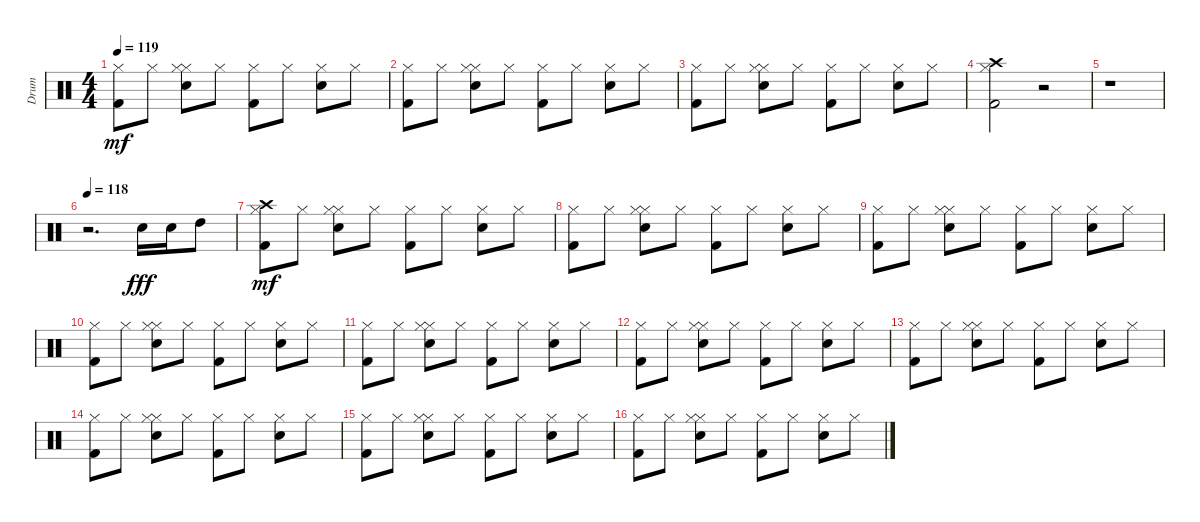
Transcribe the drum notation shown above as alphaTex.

\track ("Drum " "Drum ") {instrument percussion}
\staff {score}
\articulation defaults
\ts (4 4)
\tempo 119
\clef neutral
\ks c
("Hi-Hat (closed)" "Kick (hit) 2").8{dy mf} "Hi-Hat (closed)".8 ("Hi-Hat (closed)" "Hi-Hat (closed)" "Snare (hit) 2").8 "Hi-Hat (closed)".8 ("Hi-Hat (closed)" "Kick (hit) 2").8 "Hi-Hat (closed)".8 ("Hi-Hat (closed)" "Snare (hit) 2").8 "Hi-Hat (closed)".8 |
("Hi-Hat (closed)" "Kick (hit) 2").8 "Hi-Hat (closed)".8 ("Hi-Hat (closed)" "Hi-Hat (closed)" "Snare (hit) 2").8 "Hi-Hat (closed)".8 ("Hi-Hat (closed)" "Kick (hit) 2").8 "Hi-Hat (closed)".8 ("Hi-Hat (closed)" "Snare (hit) 2").8 "Hi-Hat (closed)".8 |
("Hi-Hat (closed)" "Kick (hit) 2").8 "Hi-Hat (closed)".8 ("Hi-Hat (closed)" "Hi-Hat (closed)" "Snare (hit) 2").8 "Hi-Hat (closed)".8 ("Hi-Hat (closed)" "Kick (hit) 2").8 "Hi-Hat (closed)".8 ("Hi-Hat (closed)" "Snare (hit) 2").8 "Hi-Hat (closed)".8 |
("Hi-Hat (closed)" "Kick (hit) 2" "Crash high (hit)").2 r.2 |
r.1 |
\tempo 118
r.2{d} "Snare (hit) 2".16{dy fff} "Snare (hit) 2".16 "High Tom (hit)".8 |
("Hi-Hat (closed)" "Kick (hit) 2" "Crash high (hit)").8{dy mf} "Hi-Hat (closed)".8 ("Hi-Hat (closed)" "Hi-Hat (closed)" "Snare (hit) 2").8 "Hi-Hat (closed)".8 ("Hi-Hat (closed)" "Kick (hit) 2").8 "Hi-Hat (closed)".8 ("Hi-Hat (closed)" "Snare (hit) 2").8 "Hi-Hat (closed)".8 |
("Hi-Hat (closed)" "Kick (hit) 2").8 "Hi-Hat (closed)".8 ("Hi-Hat (closed)" "Hi-Hat (closed)" "Snare (hit) 2").8 "Hi-Hat (closed)".8 ("Hi-Hat (closed)" "Kick (hit) 2").8 "Hi-Hat (closed)".8 ("Hi-Hat (closed)" "Snare (hit) 2").8 "Hi-Hat (closed)".8 |
("Hi-Hat (closed)" "Kick (hit) 2").8 "Hi-Hat (closed)".8 ("Hi-Hat (closed)" "Hi-Hat (closed)" "Snare (hit) 2").8 "Hi-Hat (closed)".8 ("Hi-Hat (closed)" "Kick (hit) 2").8 "Hi-Hat (closed)".8 ("Hi-Hat (closed)" "Snare (hit) 2").8 "Hi-Hat (closed)".8 |
("Hi-Hat (closed)" "Kick (hit) 2").8 "Hi-Hat (closed)".8 ("Hi-Hat (closed)" "Hi-Hat (closed)" "Snare (hit) 2").8 "Hi-Hat (closed)".8 ("Hi-Hat (closed)" "Kick (hit) 2").8 "Hi-Hat (closed)".8 ("Hi-Hat (closed)" "Snare (hit) 2").8 "Hi-Hat (closed)".8 |
("Hi-Hat (closed)" "Kick (hit) 2").8 "Hi-Hat (closed)".8 ("Hi-Hat (closed)" "Hi-Hat (closed)" "Snare (hit) 2").8 "Hi-Hat (closed)".8 ("Hi-Hat (closed)" "Kick (hit) 2").8 "Hi-Hat (closed)".8 ("Hi-Hat (closed)" "Snare (hit) 2").8 "Hi-Hat (closed)".8 |
("Hi-Hat (closed)" "Kick (hit) 2").8 "Hi-Hat (closed)".8 ("Hi-Hat (closed)" "Hi-Hat (closed)" "Snare (hit) 2").8 "Hi-Hat (closed)".8 ("Hi-Hat (closed)" "Kick (hit) 2").8 "Hi-Hat (closed)".8 ("Hi-Hat (closed)" "Snare (hit) 2").8 "Hi-Hat (closed)".8 |
("Hi-Hat (closed)" "Kick (hit) 2").8 "Hi-Hat (closed)".8 ("Hi-Hat (closed)" "Hi-Hat (closed)" "Snare (hit) 2").8 "Hi-Hat (closed)".8 ("Hi-Hat (closed)" "Kick (hit) 2").8 "Hi-Hat (closed)".8 ("Hi-Hat (closed)" "Snare (hit) 2").8 "Hi-Hat (closed)".8 |
("Hi-Hat (closed)" "Kick (hit) 2").8 "Hi-Hat (closed)".8 ("Hi-Hat (closed)" "Hi-Hat (closed)" "Snare (hit) 2").8 "Hi-Hat (closed)".8 ("Hi-Hat (closed)" "Kick (hit) 2").8 "Hi-Hat (closed)".8 ("Hi-Hat (closed)" "Snare (hit) 2").8 "Hi-Hat (closed)".8 |
("Hi-Hat (closed)" "Kick (hit) 2").8 "Hi-Hat (closed)".8 ("Hi-Hat (closed)" "Hi-Hat (closed)" "Snare (hit) 2").8 "Hi-Hat (closed)".8 ("Hi-Hat (closed)" "Kick (hit) 2").8 "Hi-Hat (closed)".8 ("Hi-Hat (closed)" "Snare (hit) 2").8 "Hi-Hat (closed)".8 |
("Hi-Hat (closed)" "Kick (hit) 2").8 "Hi-Hat (closed)".8 ("Hi-Hat (closed)" "Hi-Hat (closed)" "Snare (hit) 2").8 "Hi-Hat (closed)".8 ("Hi-Hat (closed)" "Kick (hit) 2").8 "Hi-Hat (closed)".8 ("Hi-Hat (closed)" "Snare (hit) 2").8 "Hi-Hat (closed)".8
